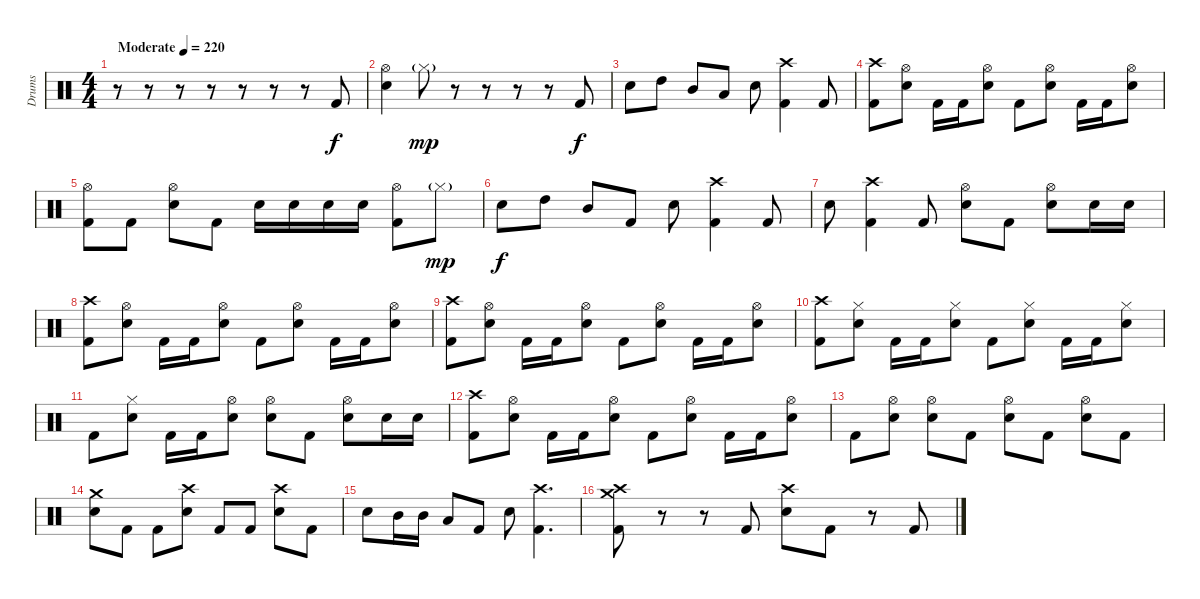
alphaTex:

\track ("Drums" "Drums") {instrument percussion}
\staff {score}
\articulation defaults
\ts (4 4)
\tempo (220 "Moderate")
\clef neutral
\ks c
r.8{dy f} r.8 r.8 r.8 r.8 r.8 r.8 "Kick (hit) 2".8 |
("Hi-Hat (open)" "Electric Snare (hit)").4 "Hi-Hat (closed)"{g}.8{dy mp} r.8 r.8 r.8 r.8 "Kick (hit) 2".8{dy f} |
"Electric Snare (hit)".8 "High Tom (hit)".8 "Mid Tom (hit)".8 "Low Floor Tom (hit)".8 "Electric Snare (hit)".8 ("Crash high (hit)" "Kick (hit) 2").4 "Kick (hit) 2".8 |
("Crash high (hit)" "Kick (hit) 2").8 ("Hi-Hat (open)" "Electric Snare (hit)").8 "Kick (hit) 2".16 "Kick (hit) 2".16 ("Hi-Hat (open)" "Electric Snare (hit)").8 "Kick (hit) 2".8 ("Hi-Hat (open)" "Electric Snare (hit)").8 "Kick (hit) 2".16 "Kick (hit) 2".16 ("Hi-Hat (open)" "Electric Snare (hit)").8 |
("Hi-Hat (open)" "Kick (hit) 2").8 "Kick (hit) 2".8 ("Hi-Hat (open)" "Electric Snare (hit)").8 "Kick (hit) 2".8 "Electric Snare (hit)".16 "Electric Snare (hit)".16 "Electric Snare (hit)".16 "Electric Snare (hit)".16 ("Hi-Hat (open)" "Kick (hit) 2").8 "Hi-Hat (closed)"{g}.8{dy mp} |
"Electric Snare (hit)".8{dy f} "High Tom (hit)".8 "Mid Tom (hit)".8 "Kick (hit) 2".8 "Electric Snare (hit)".8 ("Crash high (hit)" "Kick (hit) 2").4 "Kick (hit) 2".8 |
"Electric Snare (hit)".8 ("Crash high (hit)" "Kick (hit) 2").4 "Kick (hit) 2".8 ("Hi-Hat (open)" "Electric Snare (hit)").8 "Kick (hit) 2".8 ("Hi-Hat (open)" "Electric Snare (hit)").8 "Electric Snare (hit)".16 "Electric Snare (hit)".16 |
("Crash high (hit)" "Kick (hit) 2").8 ("Hi-Hat (open)" "Electric Snare (hit)").8 "Kick (hit) 2".16 "Kick (hit) 2".16 ("Hi-Hat (open)" "Electric Snare (hit)").8 "Kick (hit) 2".8 ("Hi-Hat (open)" "Electric Snare (hit)").8 "Kick (hit) 2".16 "Kick (hit) 2".16 ("Hi-Hat (open)" "Electric Snare (hit)").8 |
("Crash high (hit)" "Kick (hit) 2").8 ("Hi-Hat (open)" "Electric Snare (hit)").8 "Kick (hit) 2".16 "Kick (hit) 2".16 ("Hi-Hat (open)" "Electric Snare (hit)").8 "Kick (hit) 2".8 ("Hi-Hat (open)" "Electric Snare (hit)").8 "Kick (hit) 2".16 "Kick (hit) 2".16 ("Hi-Hat (open)" "Electric Snare (hit)").8 |
("Crash high (hit)" "Kick (hit) 2").8 ("Hi-Hat (closed)" "Electric Snare (hit)").8 "Kick (hit) 2".16 "Kick (hit) 2".16 ("Hi-Hat (closed)" "Electric Snare (hit)").8 "Kick (hit) 2".8 ("Hi-Hat (closed)" "Electric Snare (hit)").8 "Kick (hit) 2".16 "Kick (hit) 2".16 ("Hi-Hat (closed)" "Electric Snare (hit)").8 |
"Kick (hit) 2".8 ("Hi-Hat (closed)" "Electric Snare (hit)").8 "Kick (hit) 2".16 "Kick (hit) 2".16 ("Hi-Hat (open)" "Electric Snare (hit)").8 ("Hi-Hat (open)" "Electric Snare (hit)").8 "Kick (hit) 2".8 ("Hi-Hat (open)" "Electric Snare (hit)").8 "Electric Snare (hit)".16 "Electric Snare (hit)".16 |
("Crash high (hit)" "Kick (hit) 2").8 ("Hi-Hat (open)" "Electric Snare (hit)").8 "Kick (hit) 2".16 "Kick (hit) 2".16 ("Hi-Hat (open)" "Electric Snare (hit)").8 "Kick (hit) 2".8 ("Hi-Hat (open)" "Electric Snare (hit)").8 "Kick (hit) 2".16 "Kick (hit) 2".16 ("Hi-Hat (open)" "Electric Snare (hit)").8 |
"Kick (hit) 2".8 ("Hi-Hat (open)" "Electric Snare (hit)").8 ("Hi-Hat (open)" "Electric Snare (hit)").8 "Kick (hit) 2".8 ("Hi-Hat (open)" "Electric Snare (hit)").8 "Kick (hit) 2".8 ("Hi-Hat (open)" "Electric Snare (hit)").8 "Kick (hit) 2".8 |
("Crash medium (hit)" "Electric Snare (hit)").8 "Kick (hit) 2".8 "Kick (hit) 2".8 ("Crash high (hit)" "Electric Snare (hit)").8 "Kick (hit) 2".8 "Kick (hit) 2".8 ("Crash high (hit)" "Electric Snare (hit)").8 "Kick (hit) 2".8 |
"Electric Snare (hit)".8 "Mid Tom (hit)".16 "Mid Tom (hit)".16 "Low Floor Tom (hit)".8 "Kick (hit) 2".8 "Electric Snare (hit)".8 ("Crash high (hit)" "Kick (hit) 2").4{d} |
("Crash medium (hit)" "Crash high (hit)" "Kick (hit) 2").8 r.8 r.8 "Kick (hit) 2".8 ("Crash high (hit)" "Electric Snare (hit)").8 "Kick (hit) 2".8 r.8 "Kick (hit) 2".8
